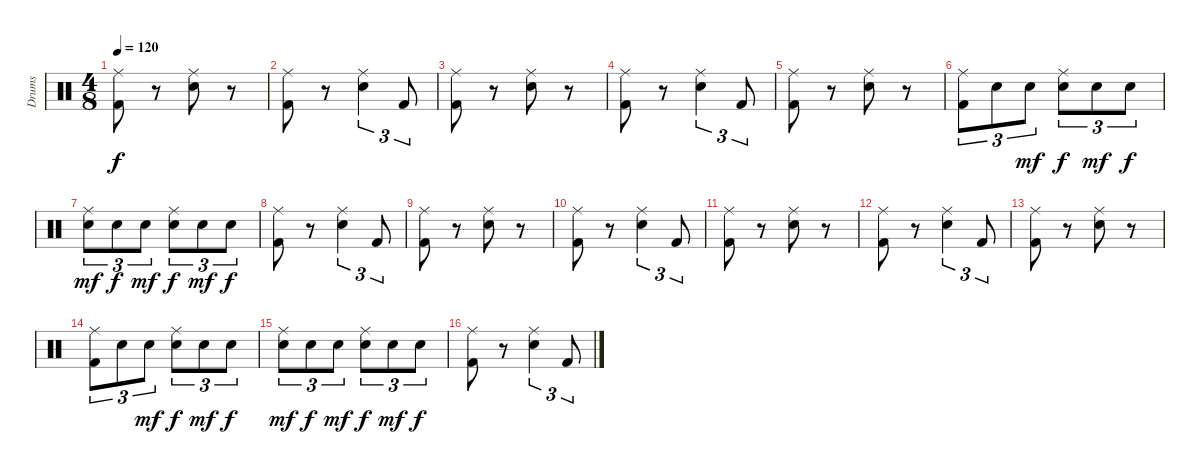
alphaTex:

\track ("Drums" "Drums") {instrument percussion}
\staff {score}
\articulation defaults
\ts (4 8)
\tempo 120
\clef neutral
\ks c
("Ride (middle)" "Kick (hit) 2").8{dy f} r.8 ("Ride (middle)" "Electric Snare (hit)").8 r.8 |
("Ride (middle)" "Kick (hit) 2").8 r.8 ("Ride (middle)" "Electric Snare (hit)").4{tu (3 2)} "Kick (hit) 2".8{tu (3 2)} |
("Ride (middle)" "Kick (hit) 2").8 r.8 ("Ride (middle)" "Electric Snare (hit)").8 r.8 |
("Ride (middle)" "Kick (hit) 2").8 r.8 ("Ride (middle)" "Electric Snare (hit)").4{tu (3 2)} "Kick (hit) 2".8{tu (3 2)} |
("Ride (middle)" "Kick (hit) 2").8 r.8 ("Ride (middle)" "Electric Snare (hit)").8 r.8 |
("Ride (middle)" "Kick (hit) 2").8{tu (3 2)} "Electric Snare (hit)".8{tu (3 2)} "Electric Snare (hit)".8{tu (3 2) dy mf} ("Ride (middle)" "Electric Snare (hit)").8{tu (3 2) dy f} "Electric Snare (hit)".8{tu (3 2) dy mf} "Electric Snare (hit)".8{tu (3 2) dy f} |
("Ride (middle)" "Electric Snare (hit)").8{tu (3 2) dy mf} "Electric Snare (hit)".8{tu (3 2) dy f} "Electric Snare (hit)".8{tu (3 2) dy mf} ("Ride (middle)" "Electric Snare (hit)").8{tu (3 2) dy f} "Electric Snare (hit)".8{tu (3 2) dy mf} "Electric Snare (hit)".8{tu (3 2) dy f} |
("Ride (middle)" "Kick (hit) 2").8 r.8 ("Ride (middle)" "Electric Snare (hit)").4{tu (3 2)} "Kick (hit) 2".8{tu (3 2)} |
("Ride (middle)" "Kick (hit) 2").8 r.8 ("Ride (middle)" "Electric Snare (hit)").8 r.8 |
("Ride (middle)" "Kick (hit) 2").8 r.8 ("Ride (middle)" "Electric Snare (hit)").4{tu (3 2)} "Kick (hit) 2".8{tu (3 2)} |
("Ride (middle)" "Kick (hit) 2").8 r.8 ("Ride (middle)" "Electric Snare (hit)").8 r.8 |
("Ride (middle)" "Kick (hit) 2").8 r.8 ("Ride (middle)" "Electric Snare (hit)").4{tu (3 2)} "Kick (hit) 2".8{tu (3 2)} |
("Ride (middle)" "Kick (hit) 2").8 r.8 ("Ride (middle)" "Electric Snare (hit)").8 r.8 |
("Ride (middle)" "Kick (hit) 2").8{tu (3 2)} "Electric Snare (hit)".8{tu (3 2)} "Electric Snare (hit)".8{tu (3 2) dy mf} ("Ride (middle)" "Electric Snare (hit)").8{tu (3 2) dy f} "Electric Snare (hit)".8{tu (3 2) dy mf} "Electric Snare (hit)".8{tu (3 2) dy f} |
("Ride (middle)" "Electric Snare (hit)").8{tu (3 2) dy mf} "Electric Snare (hit)".8{tu (3 2) dy f} "Electric Snare (hit)".8{tu (3 2) dy mf} ("Ride (middle)" "Electric Snare (hit)").8{tu (3 2) dy f} "Electric Snare (hit)".8{tu (3 2) dy mf} "Electric Snare (hit)".8{tu (3 2) dy f} |
("Ride (middle)" "Kick (hit) 2").8 r.8 ("Ride (middle)" "Electric Snare (hit)").4{tu (3 2)} "Kick (hit) 2".8{tu (3 2)}
